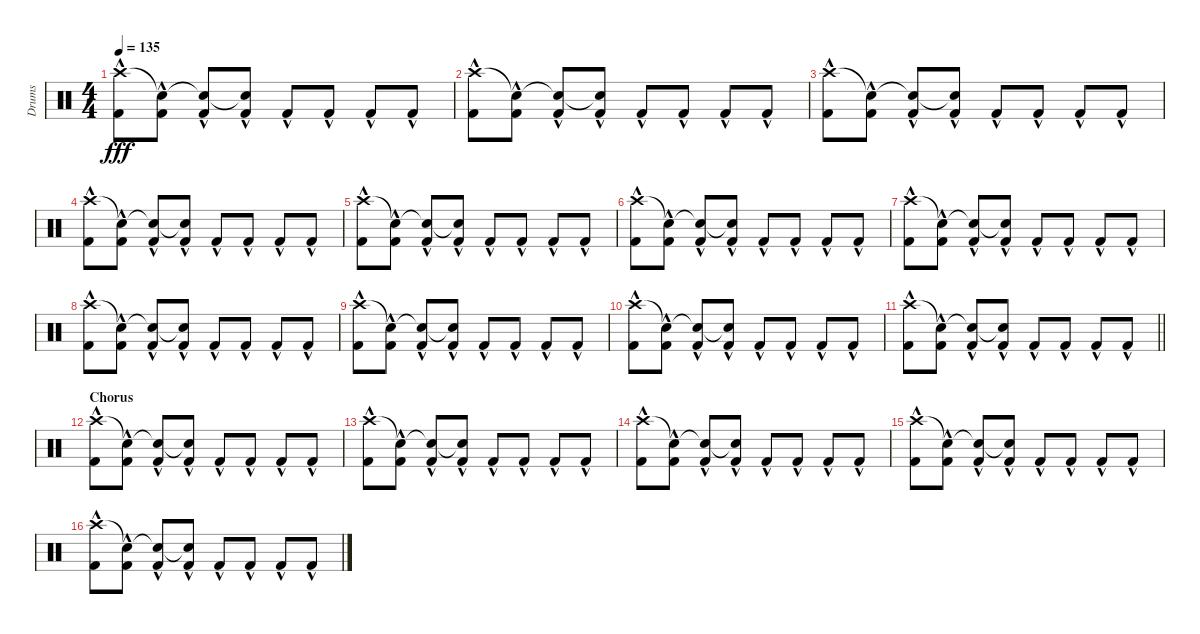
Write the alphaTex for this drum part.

\track ("Drums" "Drums") {instrument percussion}
\staff {score}
\articulation defaults
\ts (4 4)
\tempo 135
\clef neutral
\ks c
("Crash high (hit)"{hac} "Kick (hit) 2"{hac}).8{dy fff} ("Snare (hit)"{t} "Kick (hit) 2"{hac}).8 ("Snare (hit)"{t} "Kick (hit) 2"{hac}).8 ("Snare (hit)"{t} "Kick (hit) 2"{hac}).8 "Kick (hit) 2"{hac}.8 "Kick (hit) 2"{hac}.8 "Kick (hit) 2"{hac}.8 "Kick (hit) 2"{hac}.8 |
("Crash high (hit)"{hac} "Kick (hit) 2"{hac}).8 ("Snare (hit)"{t} "Kick (hit) 2"{hac}).8 ("Snare (hit)"{t} "Kick (hit) 2"{hac}).8 ("Snare (hit)"{t} "Kick (hit) 2"{hac}).8 "Kick (hit) 2"{hac}.8 "Kick (hit) 2"{hac}.8 "Kick (hit) 2"{hac}.8 "Kick (hit) 2"{hac}.8 |
("Crash high (hit)"{hac} "Kick (hit) 2"{hac}).8 ("Snare (hit)"{t} "Kick (hit) 2"{hac}).8 ("Snare (hit)"{t} "Kick (hit) 2"{hac}).8 ("Snare (hit)"{t} "Kick (hit) 2"{hac}).8 "Kick (hit) 2"{hac}.8 "Kick (hit) 2"{hac}.8 "Kick (hit) 2"{hac}.8 "Kick (hit) 2"{hac}.8 |
("Crash high (hit)"{hac} "Kick (hit) 2"{hac}).8 ("Snare (hit)"{t} "Kick (hit) 2"{hac}).8 ("Snare (hit)"{t} "Kick (hit) 2"{hac}).8 ("Snare (hit)"{t} "Kick (hit) 2"{hac}).8 "Kick (hit) 2"{hac}.8 "Kick (hit) 2"{hac}.8 "Kick (hit) 2"{hac}.8 "Kick (hit) 2"{hac}.8 |
("Crash high (hit)"{hac} "Kick (hit) 2"{hac}).8 ("Snare (hit)"{t} "Kick (hit) 2"{hac}).8 ("Snare (hit)"{t} "Kick (hit) 2"{hac}).8 ("Snare (hit)"{t} "Kick (hit) 2"{hac}).8 "Kick (hit) 2"{hac}.8 "Kick (hit) 2"{hac}.8 "Kick (hit) 2"{hac}.8 "Kick (hit) 2"{hac}.8 |
("Crash high (hit)"{hac} "Kick (hit) 2"{hac}).8 ("Snare (hit)"{t} "Kick (hit) 2"{hac}).8 ("Snare (hit)"{t} "Kick (hit) 2"{hac}).8 ("Snare (hit)"{t} "Kick (hit) 2"{hac}).8 "Kick (hit) 2"{hac}.8 "Kick (hit) 2"{hac}.8 "Kick (hit) 2"{hac}.8 "Kick (hit) 2"{hac}.8 |
("Crash high (hit)"{hac} "Kick (hit) 2"{hac}).8 ("Snare (hit)"{t} "Kick (hit) 2"{hac}).8 ("Snare (hit)"{t} "Kick (hit) 2"{hac}).8 ("Snare (hit)"{t} "Kick (hit) 2"{hac}).8 "Kick (hit) 2"{hac}.8 "Kick (hit) 2"{hac}.8 "Kick (hit) 2"{hac}.8 "Kick (hit) 2"{hac}.8 |
("Crash high (hit)"{hac} "Kick (hit) 2"{hac}).8 ("Snare (hit)"{t} "Kick (hit) 2"{hac}).8 ("Snare (hit)"{t} "Kick (hit) 2"{hac}).8 ("Snare (hit)"{t} "Kick (hit) 2"{hac}).8 "Kick (hit) 2"{hac}.8 "Kick (hit) 2"{hac}.8 "Kick (hit) 2"{hac}.8 "Kick (hit) 2"{hac}.8 |
("Crash high (hit)"{hac} "Kick (hit) 2"{hac}).8 ("Snare (hit)"{t} "Kick (hit) 2"{hac}).8 ("Snare (hit)"{t} "Kick (hit) 2"{hac}).8 ("Snare (hit)"{t} "Kick (hit) 2"{hac}).8 "Kick (hit) 2"{hac}.8 "Kick (hit) 2"{hac}.8 "Kick (hit) 2"{hac}.8 "Kick (hit) 2"{hac}.8 |
("Crash high (hit)"{hac} "Kick (hit) 2"{hac}).8 ("Snare (hit)"{t} "Kick (hit) 2"{hac}).8 ("Snare (hit)"{t} "Kick (hit) 2"{hac}).8 ("Snare (hit)"{t} "Kick (hit) 2"{hac}).8 "Kick (hit) 2"{hac}.8 "Kick (hit) 2"{hac}.8 "Kick (hit) 2"{hac}.8 "Kick (hit) 2"{hac}.8 |
\barLineRight lightlight
("Crash high (hit)"{hac} "Kick (hit) 2"{hac}).8 ("Snare (hit)"{t} "Kick (hit) 2"{hac}).8 ("Snare (hit)"{t} "Kick (hit) 2"{hac}).8 ("Snare (hit)"{t} "Kick (hit) 2"{hac}).8 "Kick (hit) 2"{hac}.8 "Kick (hit) 2"{hac}.8 "Kick (hit) 2"{hac}.8 "Kick (hit) 2"{hac}.8 |
\section ("" "Chorus")
("Crash high (hit)"{hac} "Kick (hit) 2"{hac}).8 ("Snare (hit)"{t} "Kick (hit) 2"{hac}).8 ("Snare (hit)"{t} "Kick (hit) 2"{hac}).8 ("Snare (hit)"{t} "Kick (hit) 2"{hac}).8 "Kick (hit) 2"{hac}.8 "Kick (hit) 2"{hac}.8 "Kick (hit) 2"{hac}.8 "Kick (hit) 2"{hac}.8 |
("Crash high (hit)"{hac} "Kick (hit) 2"{hac}).8 ("Snare (hit)"{t} "Kick (hit) 2"{hac}).8 ("Snare (hit)"{t} "Kick (hit) 2"{hac}).8 ("Snare (hit)"{t} "Kick (hit) 2"{hac}).8 "Kick (hit) 2"{hac}.8 "Kick (hit) 2"{hac}.8 "Kick (hit) 2"{hac}.8 "Kick (hit) 2"{hac}.8 |
("Crash high (hit)"{hac} "Kick (hit) 2"{hac}).8 ("Snare (hit)"{t} "Kick (hit) 2"{hac}).8 ("Snare (hit)"{t} "Kick (hit) 2"{hac}).8 ("Snare (hit)"{t} "Kick (hit) 2"{hac}).8 "Kick (hit) 2"{hac}.8 "Kick (hit) 2"{hac}.8 "Kick (hit) 2"{hac}.8 "Kick (hit) 2"{hac}.8 |
("Crash high (hit)"{hac} "Kick (hit) 2"{hac}).8 ("Snare (hit)"{t} "Kick (hit) 2"{hac}).8 ("Snare (hit)"{t} "Kick (hit) 2"{hac}).8 ("Snare (hit)"{t} "Kick (hit) 2"{hac}).8 "Kick (hit) 2"{hac}.8 "Kick (hit) 2"{hac}.8 "Kick (hit) 2"{hac}.8 "Kick (hit) 2"{hac}.8 |
("Crash high (hit)"{hac} "Kick (hit) 2"{hac}).8 ("Snare (hit)"{t} "Kick (hit) 2"{hac}).8 ("Snare (hit)"{t} "Kick (hit) 2"{hac}).8 ("Snare (hit)"{t} "Kick (hit) 2"{hac}).8 "Kick (hit) 2"{hac}.8 "Kick (hit) 2"{hac}.8 "Kick (hit) 2"{hac}.8 "Kick (hit) 2"{hac}.8
